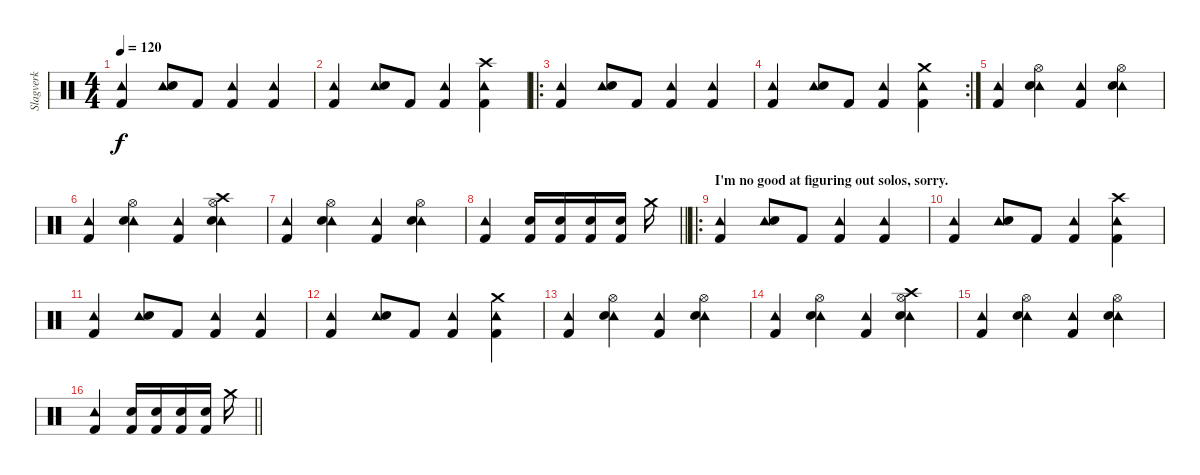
\track ("Slagverk" "Slagverk") {instrument percussion}
\staff {score}
\articulation defaults
\ts (4 4)
\tempo 120
\clef neutral
\ks c
("Tambourine (hit)" "Kick (hit) 2").4{dy f} ("Tambourine (hit)" "Snare (hit) 2").8 "Kick (hit) 2".8 ("Tambourine (hit)" "Kick (hit) 2").4 ("Tambourine (hit)" "Kick (hit) 2").4 |
("Tambourine (hit)" "Kick (hit) 2").4 ("Tambourine (hit)" "Snare (hit) 2").8 "Kick (hit) 2".8 ("Tambourine (hit)" "Kick (hit) 2").4 ("Crash high (hit)" "Tambourine (hit)" "Kick (hit) 2").4 |
\ro
("Tambourine (hit)" "Kick (hit) 2").4 ("Tambourine (hit)" "Snare (hit) 2").8 "Kick (hit) 2".8 ("Tambourine (hit)" "Kick (hit) 2").4 ("Tambourine (hit)" "Kick (hit) 2").4 |
\rc 2
("Tambourine (hit)" "Kick (hit) 2").4 ("Tambourine (hit)" "Snare (hit) 2").8 "Kick (hit) 2".8 ("Tambourine (hit)" "Kick (hit) 2").4 ("Crash medium (hit)" "Tambourine (hit)" "Kick (hit) 2").4 |
("Tambourine (hit)" "Kick (hit) 2").4 ("Tambourine (hit)" "Hi-Hat (open)" "Snare (hit) 2").4 ("Tambourine (hit)" "Kick (hit) 2").4 ("Tambourine (hit)" "Hi-Hat (open)" "Snare (hit) 2").4 |
("Tambourine (hit)" "Kick (hit) 2").4 ("Tambourine (hit)" "Hi-Hat (open)" "Snare (hit) 2").4 ("Tambourine (hit)" "Kick (hit) 2").4 ("Tambourine (hit)" "Crash high (hit)" "Hi-Hat (open)" "Snare (hit) 2").4 |
("Tambourine (hit)" "Kick (hit) 2").4 ("Tambourine (hit)" "Hi-Hat (open)" "Snare (hit) 2").4 ("Tambourine (hit)" "Kick (hit) 2").4 ("Tambourine (hit)" "Hi-Hat (open)" "Snare (hit) 2").4 |
\barLineRight lightlight
("Tambourine (hit)" "Kick (hit) 2").4 ("Electric Snare (hit)" "Kick (hit) 2").16 ("Electric Snare (hit)" "Kick (hit) 2").16 ("Electric Snare (hit)" "Kick (hit) 2").16 ("Electric Snare (hit)" "Kick (hit) 2").16 "Crash medium (hit)".16 |
\ro
\section ("" "I'm no good at figuring out solos, sorry.")
("Tambourine (hit)" "Kick (hit) 2").4 ("Tambourine (hit)" "Snare (hit) 2").8 "Kick (hit) 2".8 ("Tambourine (hit)" "Kick (hit) 2").4 ("Tambourine (hit)" "Kick (hit) 2").4 |
("Tambourine (hit)" "Kick (hit) 2").4 ("Tambourine (hit)" "Snare (hit) 2").8 "Kick (hit) 2".8 ("Tambourine (hit)" "Kick (hit) 2").4 ("Crash high (hit)" "Tambourine (hit)" "Kick (hit) 2").4 |
("Tambourine (hit)" "Kick (hit) 2").4 ("Tambourine (hit)" "Snare (hit) 2").8 "Kick (hit) 2".8 ("Tambourine (hit)" "Kick (hit) 2").4 ("Tambourine (hit)" "Kick (hit) 2").4 |
("Tambourine (hit)" "Kick (hit) 2").4 ("Tambourine (hit)" "Snare (hit) 2").8 "Kick (hit) 2".8 ("Tambourine (hit)" "Kick (hit) 2").4 ("Crash medium (hit)" "Tambourine (hit)" "Kick (hit) 2").4 |
("Tambourine (hit)" "Kick (hit) 2").4 ("Tambourine (hit)" "Hi-Hat (open)" "Snare (hit) 2").4 ("Tambourine (hit)" "Kick (hit) 2").4 ("Tambourine (hit)" "Hi-Hat (open)" "Snare (hit) 2").4 |
("Tambourine (hit)" "Kick (hit) 2").4 ("Tambourine (hit)" "Hi-Hat (open)" "Snare (hit) 2").4 ("Tambourine (hit)" "Kick (hit) 2").4 ("Tambourine (hit)" "Crash high (hit)" "Hi-Hat (open)" "Snare (hit) 2").4 |
("Tambourine (hit)" "Kick (hit) 2").4 ("Tambourine (hit)" "Hi-Hat (open)" "Snare (hit) 2").4 ("Tambourine (hit)" "Kick (hit) 2").4 ("Tambourine (hit)" "Hi-Hat (open)" "Snare (hit) 2").4 |
\barLineRight lightlight
("Tambourine (hit)" "Kick (hit) 2").4 ("Electric Snare (hit)" "Kick (hit) 2").16 ("Electric Snare (hit)" "Kick (hit) 2").16 ("Electric Snare (hit)" "Kick (hit) 2").16 ("Electric Snare (hit)" "Kick (hit) 2").16 "Crash medium (hit)".16
